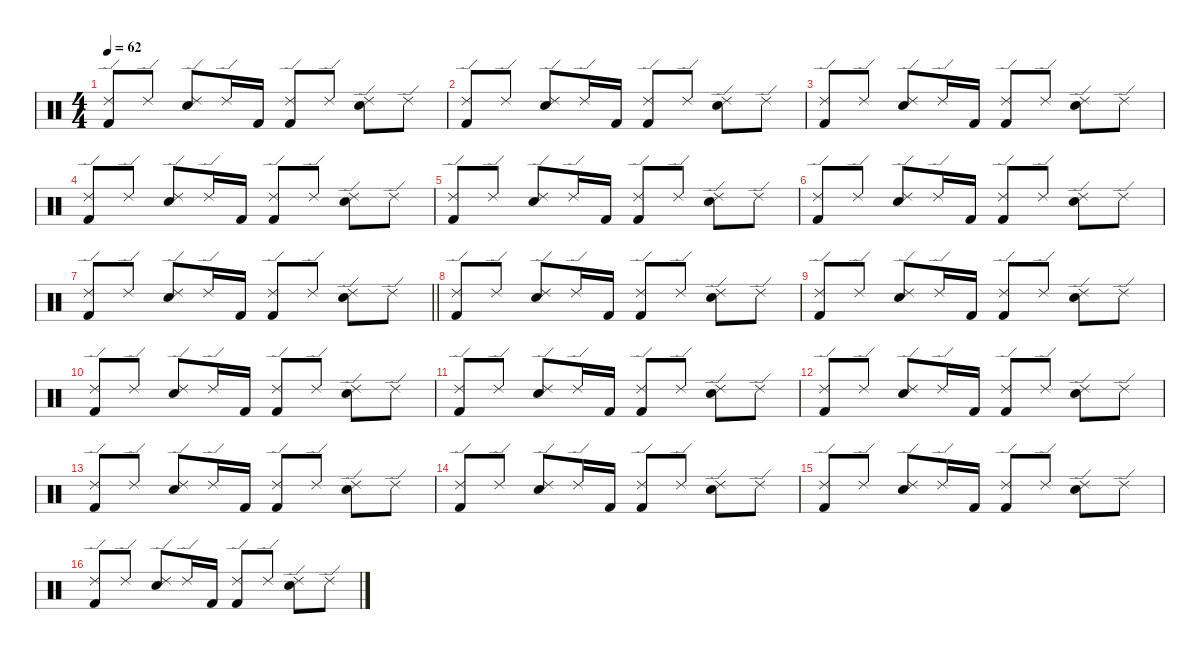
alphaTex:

\defaultSystemsLayout 4
\hideDynamics
\bracketExtendMode nobrackets
\singleTrackTrackNamePolicy hidden
\multiTrackTrackNamePolicy hidden
\firstSystemTrackNameMode fullname
\otherSystemsTrackNameOrientation horizontal
\track ("Drums" "drm.") {defaultSystemsLayout 4 instrument percussion}
\staff {score}
\articulation defaults
\ts (4 4)
\tempo 62
\clef neutral
\ks c
("Ride (edge) 2" "Kick (hit) 2").8{dy f beam Up} "Ride (edge) 2".8{beam Up} ("Ride (edge) 2" "Snare (hit) 2").8{beam Up} "Ride (edge) 2".16{beam Up} "Kick (hit) 2".16{beam Up} ("Ride (edge) 2" "Kick (hit) 2").8{beam Up} "Ride (edge) 2".8{beam Up} ("Ride (edge) 2" "Snare (hit) 2").8{beam Down} "Ride (edge) 2".8{beam Down} |
("Ride (edge) 2" "Kick (hit) 2").8{beam Up} "Ride (edge) 2".8{beam Up} ("Ride (edge) 2" "Snare (hit) 2").8{beam Up} "Ride (edge) 2".16{beam Up} "Kick (hit) 2".16{beam Up} ("Ride (edge) 2" "Kick (hit) 2").8{beam Up} "Ride (edge) 2".8{beam Up} ("Ride (edge) 2" "Snare (hit) 2").8{beam Down} "Ride (edge) 2".8{beam Down} |
("Ride (edge) 2" "Kick (hit) 2").8{beam Up} "Ride (edge) 2".8{beam Up} ("Ride (edge) 2" "Snare (hit) 2").8{beam Up} "Ride (edge) 2".16{beam Up} "Kick (hit) 2".16{beam Up} ("Ride (edge) 2" "Kick (hit) 2").8{beam Up} "Ride (edge) 2".8{beam Up} ("Ride (edge) 2" "Snare (hit) 2").8{beam Down} "Ride (edge) 2".8{beam Down} |
("Ride (edge) 2" "Kick (hit) 2").8{beam Up} "Ride (edge) 2".8{beam Up} ("Ride (edge) 2" "Snare (hit) 2").8{beam Up} "Ride (edge) 2".16{beam Up} "Kick (hit) 2".16{beam Up} ("Ride (edge) 2" "Kick (hit) 2").8{beam Up} "Ride (edge) 2".8{beam Up} ("Ride (edge) 2" "Snare (hit) 2").8{beam Down} "Ride (edge) 2".8{beam Down} |
("Ride (edge) 2" "Kick (hit) 2").8{beam Up} "Ride (edge) 2".8{beam Up} ("Ride (edge) 2" "Snare (hit) 2").8{beam Up} "Ride (edge) 2".16{beam Up} "Kick (hit) 2".16{beam Up} ("Ride (edge) 2" "Kick (hit) 2").8{beam Up} "Ride (edge) 2".8{beam Up} ("Ride (edge) 2" "Snare (hit) 2").8{beam Down} "Ride (edge) 2".8{beam Down} |
("Ride (edge) 2" "Kick (hit) 2").8{beam Up} "Ride (edge) 2".8{beam Up} ("Ride (edge) 2" "Snare (hit) 2").8{beam Up} "Ride (edge) 2".16{beam Up} "Kick (hit) 2".16{beam Up} ("Ride (edge) 2" "Kick (hit) 2").8{beam Up} "Ride (edge) 2".8{beam Up} ("Ride (edge) 2" "Snare (hit) 2").8{beam Down} "Ride (edge) 2".8{beam Down} |
\barLineRight lightlight
("Ride (edge) 2" "Kick (hit) 2").8{beam Up} "Ride (edge) 2".8{beam Up} ("Ride (edge) 2" "Snare (hit) 2").8{beam Up} "Ride (edge) 2".16{beam Up} "Kick (hit) 2".16{beam Up} ("Ride (edge) 2" "Kick (hit) 2").8{beam Up} "Ride (edge) 2".8{beam Up} ("Ride (edge) 2" "Snare (hit) 2").8{beam Down} "Ride (edge) 2".8{beam Down} |
("Ride (edge) 2" "Kick (hit) 2").8{beam Up} "Ride (edge) 2".8{beam Up} ("Ride (edge) 2" "Snare (hit) 2").8{beam Up} "Ride (edge) 2".16{beam Up} "Kick (hit) 2".16{beam Up} ("Ride (edge) 2" "Kick (hit) 2").8{beam Up} "Ride (edge) 2".8{beam Up} ("Ride (edge) 2" "Snare (hit) 2").8{beam Down} "Ride (edge) 2".8{beam Down} |
("Ride (edge) 2" "Kick (hit) 2").8{beam Up} "Ride (edge) 2".8{beam Up} ("Ride (edge) 2" "Snare (hit) 2").8{beam Up} "Ride (edge) 2".16{beam Up} "Kick (hit) 2".16{beam Up} ("Ride (edge) 2" "Kick (hit) 2").8{beam Up} "Ride (edge) 2".8{beam Up} ("Ride (edge) 2" "Snare (hit) 2").8{beam Down} "Ride (edge) 2".8{beam Down} |
("Ride (edge) 2" "Kick (hit) 2").8{beam Up} "Ride (edge) 2".8{beam Up} ("Ride (edge) 2" "Snare (hit) 2").8{beam Up} "Ride (edge) 2".16{beam Up} "Kick (hit) 2".16{beam Up} ("Ride (edge) 2" "Kick (hit) 2").8{beam Up} "Ride (edge) 2".8{beam Up} ("Ride (edge) 2" "Snare (hit) 2").8{beam Down} "Ride (edge) 2".8{beam Down} |
("Ride (edge) 2" "Kick (hit) 2").8{beam Up} "Ride (edge) 2".8{beam Up} ("Ride (edge) 2" "Snare (hit) 2").8{beam Up} "Ride (edge) 2".16{beam Up} "Kick (hit) 2".16{beam Up} ("Ride (edge) 2" "Kick (hit) 2").8{beam Up} "Ride (edge) 2".8{beam Up} ("Ride (edge) 2" "Snare (hit) 2").8{beam Down} "Ride (edge) 2".8{beam Down} |
("Ride (edge) 2" "Kick (hit) 2").8{beam Up} "Ride (edge) 2".8{beam Up} ("Ride (edge) 2" "Snare (hit) 2").8{beam Up} "Ride (edge) 2".16{beam Up} "Kick (hit) 2".16{beam Up} ("Ride (edge) 2" "Kick (hit) 2").8{beam Up} "Ride (edge) 2".8{beam Up} ("Ride (edge) 2" "Snare (hit) 2").8{beam Down} "Ride (edge) 2".8{beam Down} |
("Ride (edge) 2" "Kick (hit) 2").8{beam Up} "Ride (edge) 2".8{beam Up} ("Ride (edge) 2" "Snare (hit) 2").8{beam Up} "Ride (edge) 2".16{beam Up} "Kick (hit) 2".16{beam Up} ("Ride (edge) 2" "Kick (hit) 2").8{beam Up} "Ride (edge) 2".8{beam Up} ("Ride (edge) 2" "Snare (hit) 2").8{beam Down} "Ride (edge) 2".8{beam Down} |
("Ride (edge) 2" "Kick (hit) 2").8{beam Up} "Ride (edge) 2".8{beam Up} ("Ride (edge) 2" "Snare (hit) 2").8{beam Up} "Ride (edge) 2".16{beam Up} "Kick (hit) 2".16{beam Up} ("Ride (edge) 2" "Kick (hit) 2").8{beam Up} "Ride (edge) 2".8{beam Up} ("Ride (edge) 2" "Snare (hit) 2").8{beam Down} "Ride (edge) 2".8{beam Down} |
("Ride (edge) 2" "Kick (hit) 2").8{beam Up} "Ride (edge) 2".8{beam Up} ("Ride (edge) 2" "Snare (hit) 2").8{beam Up} "Ride (edge) 2".16{beam Up} "Kick (hit) 2".16{beam Up} ("Ride (edge) 2" "Kick (hit) 2").8{beam Up} "Ride (edge) 2".8{beam Up} ("Ride (edge) 2" "Snare (hit) 2").8{beam Down} "Ride (edge) 2".8{beam Down} |
("Ride (edge) 2" "Kick (hit) 2").8{beam Up} "Ride (edge) 2".8{beam Up} ("Ride (edge) 2" "Snare (hit) 2").8{beam Up} "Ride (edge) 2".16{beam Up} "Kick (hit) 2".16{beam Up} ("Ride (edge) 2" "Kick (hit) 2").8{beam Up} "Ride (edge) 2".8{beam Up} ("Ride (edge) 2" "Snare (hit) 2").8{beam Down} "Ride (edge) 2".8{beam Down}
